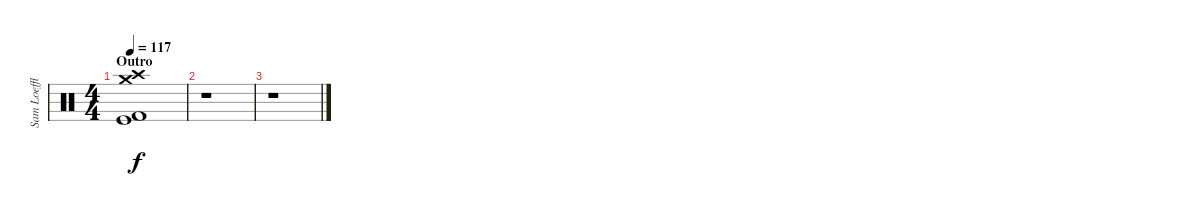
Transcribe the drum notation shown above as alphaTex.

\track ("Sam Loeffler - Drums" "Sam Loeffl") {instrument percussion}
\staff {score}
\articulation defaults
\ts (4 4)
\section ("" "Outro")
\tempo 117
\clef neutral
\ks c
("Crash high (hit)" "Crash medium (hit)" "Kick (hit)" "Kick (hit) 2").1{dy f} |
r.1 |
r.1
